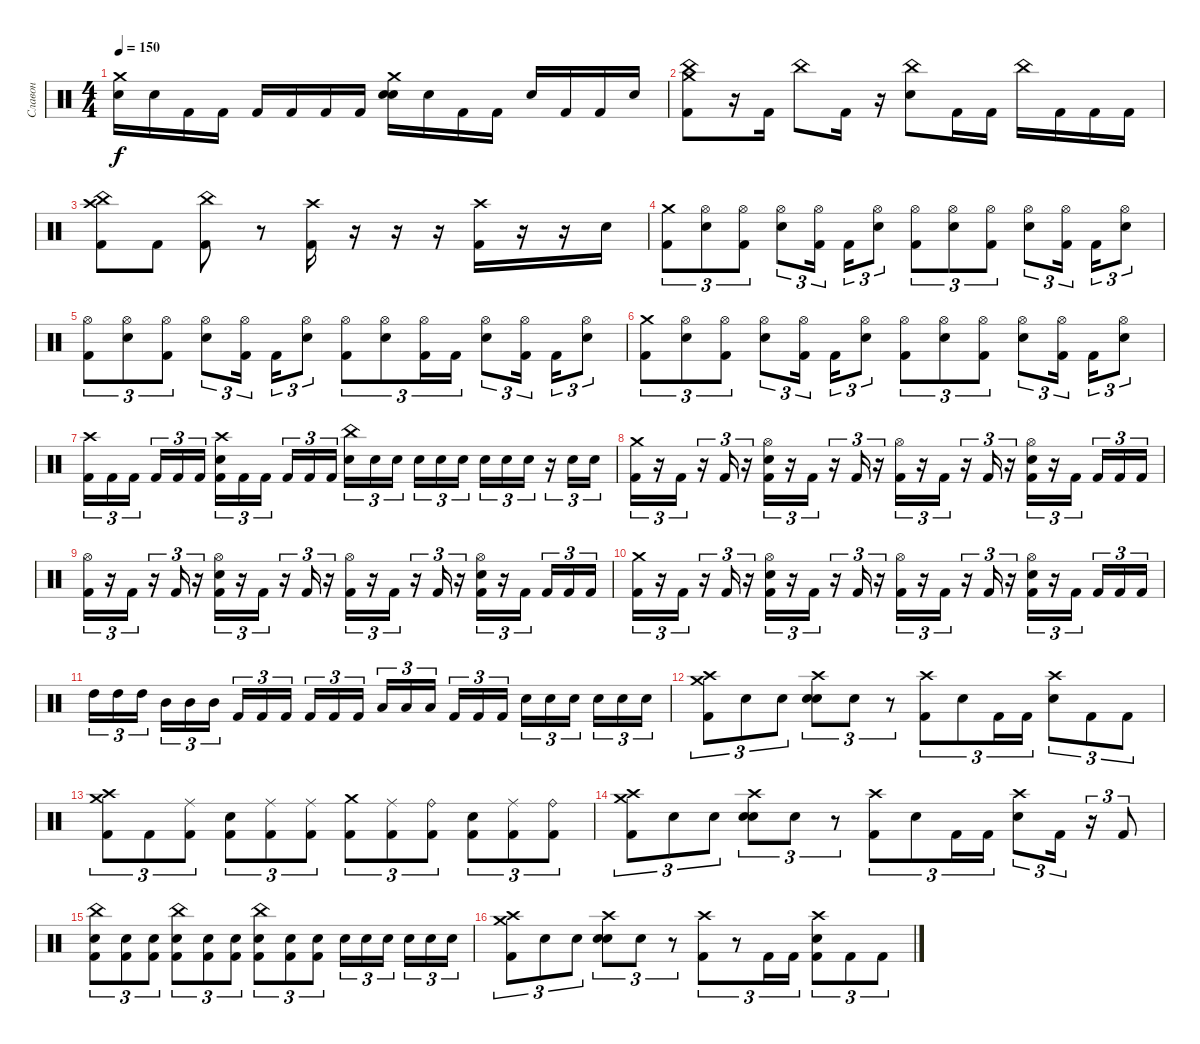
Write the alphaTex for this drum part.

\track ("Славон" "Славон") {instrument percussion}
\staff {score}
\articulation defaults
\ts (4 4)
\tempo 150
\clef neutral
\ks c
("Crash medium (hit)" "Snare (hit)").16{dy f} "Snare (hit)".16 "Kick (hit) 2".16 "Kick (hit) 2".16 "Kick (hit) 2".16 "Kick (hit) 2".16 "Kick (hit) 2".16 "Kick (hit) 2".16 ("Crash medium (hit)" "Electric Snare (hit)" "Snare (hit)").16 "Snare (hit)".16 "Kick (hit) 2".16 "Kick (hit) 2".16 "Snare (hit)".16 "Kick (hit) 2".16 "Kick (hit) 2".16 "Snare (hit)".16 |
("Crash medium (hit)" "China (hit)" "Kick (hit) 2").8 r.16 "Kick (hit) 2".16 "China (hit)".8 "Kick (hit) 2".16 r.16 ("China (hit)" "Electric Snare (hit)").8 "Kick (hit) 2".16 "Kick (hit) 2".16 "China (hit)".16 "Kick (hit) 2".16 "Kick (hit) 2".16 "Kick (hit) 2".16 |
("China (hit)" "Crash high (hit)" "Kick (hit) 2").8 "Kick (hit) 2".8 ("China (hit)" "Kick (hit) 2").8 r.8 ("Crash high (hit)" "Kick (hit) 2").16 r.16{volume 0} r.16 r.16 ("Crash high (hit)" "Kick (hit) 2").16{volume 16} r.16{volume 0} r.16 "Snare (hit)".16 |
("Crash medium (hit)" "Kick (hit) 2").8{tu (3 2) volume 16} ("Hi-Hat (open)" "Electric Snare (hit)").8{tu (3 2)} ("Hi-Hat (open)" "Kick (hit) 2").8{tu (3 2)} ("Hi-Hat (open)" "Electric Snare (hit)").8{tu (3 2)} ("Hi-Hat (open)" "Kick (hit) 2").16{tu (3 2)} "Kick (hit) 2".16{tu (3 2)} ("Hi-Hat (open)" "Electric Snare (hit)").8{tu (3 2)} ("Hi-Hat (open)" "Kick (hit) 2").8{tu (3 2)} ("Hi-Hat (open)" "Electric Snare (hit)").8{tu (3 2)} ("Hi-Hat (open)" "Kick (hit) 2").8{tu (3 2)} ("Hi-Hat (open)" "Electric Snare (hit)").8{tu (3 2)} ("Hi-Hat (open)" "Kick (hit) 2").16{tu (3 2)} "Kick (hit) 2".16{tu (3 2)} ("Hi-Hat (open)" "Electric Snare (hit)").8{tu (3 2)} |
("Hi-Hat (open)" "Kick (hit) 2").8{tu (3 2)} ("Hi-Hat (open)" "Electric Snare (hit)").8{tu (3 2)} ("Hi-Hat (open)" "Kick (hit) 2").8{tu (3 2)} ("Hi-Hat (open)" "Electric Snare (hit)").8{tu (3 2)} ("Hi-Hat (open)" "Kick (hit) 2").16{tu (3 2)} "Kick (hit) 2".16{tu (3 2)} ("Hi-Hat (open)" "Electric Snare (hit)").8{tu (3 2)} ("Hi-Hat (open)" "Kick (hit) 2").8{tu (3 2)} ("Hi-Hat (open)" "Electric Snare (hit)").8{tu (3 2)} ("Hi-Hat (open)" "Kick (hit) 2").16{tu (3 2)} "Kick (hit) 2".16{tu (3 2)} ("Hi-Hat (open)" "Electric Snare (hit)").8{tu (3 2)} ("Hi-Hat (open)" "Kick (hit) 2").16{tu (3 2)} "Kick (hit) 2".16{tu (3 2)} ("Hi-Hat (open)" "Electric Snare (hit)").8{tu (3 2)} |
("Crash medium (hit)" "Kick (hit) 2").8{tu (3 2)} ("Hi-Hat (open)" "Electric Snare (hit)").8{tu (3 2)} ("Hi-Hat (open)" "Kick (hit) 2").8{tu (3 2)} ("Hi-Hat (open)" "Electric Snare (hit)").8{tu (3 2)} ("Hi-Hat (open)" "Kick (hit) 2").16{tu (3 2)} "Kick (hit) 2".16{tu (3 2)} ("Hi-Hat (open)" "Electric Snare (hit)").8{tu (3 2)} ("Hi-Hat (open)" "Kick (hit) 2").8{tu (3 2)} ("Hi-Hat (open)" "Electric Snare (hit)").8{tu (3 2)} ("Hi-Hat (open)" "Kick (hit) 2").8{tu (3 2)} ("Hi-Hat (open)" "Electric Snare (hit)").8{tu (3 2)} ("Hi-Hat (open)" "Kick (hit) 2").16{tu (3 2)} "Kick (hit) 2".16{tu (3 2)} ("Hi-Hat (open)" "Electric Snare (hit)").8{tu (3 2)} |
("Crash high (hit)" "Kick (hit) 2").16{tu (3 2)} "Kick (hit) 2".16{tu (3 2)} "Kick (hit) 2".16{tu (3 2)} "Kick (hit) 2".16{tu (3 2)} "Kick (hit) 2".16{tu (3 2)} "Kick (hit) 2".16{tu (3 2)} ("Crash high (hit)" "Electric Snare (hit)" "Kick (hit) 2").16{tu (3 2)} "Kick (hit) 2".16{tu (3 2)} "Kick (hit) 2".16{tu (3 2)} "Kick (hit) 2".16{tu (3 2)} "Kick (hit) 2".16{tu (3 2)} "Kick (hit) 2".16{tu (3 2)} ("China (hit)" "Electric Snare (hit)").16{tu (3 2)} "Snare (hit)".16{tu (3 2)} "Electric Snare (hit)".16{tu (3 2)} "Electric Snare (hit)".16{tu (3 2)} "Electric Snare (hit)".16{tu (3 2)} "Snare (hit)".16{tu (3 2)} "Electric Snare (hit)".16{tu (3 2)} "Snare (hit)".16{tu (3 2)} "Electric Snare (hit)".16{tu (3 2)} r.16{tu (3 2)} "Electric Snare (hit)".16{tu (3 2)} "Snare (hit)".16{tu (3 2)} |
("Crash medium (hit)" "Kick (hit) 2").16{tu (3 2)} r.16{tu (3 2)} "Kick (hit) 2".16{tu (3 2)} r.16{tu (3 2)} "Kick (hit) 2".16{tu (3 2)} r.16{tu (3 2)} ("Hi-Hat (open)" "Electric Snare (hit)" "Kick (hit) 2").16{tu (3 2)} r.16{tu (3 2)} "Kick (hit) 2".16{tu (3 2)} r.16{tu (3 2)} "Kick (hit) 2".16{tu (3 2)} r.16{tu (3 2)} ("Hi-Hat (open)" "Kick (hit) 2").16{tu (3 2)} r.16{tu (3 2)} "Kick (hit) 2".16{tu (3 2)} r.16{tu (3 2)} "Kick (hit) 2".16{tu (3 2)} r.16{tu (3 2)} ("Hi-Hat (open)" "Electric Snare (hit)" "Kick (hit) 2").16{tu (3 2)} r.16{tu (3 2)} "Kick (hit) 2".16{tu (3 2)} "Kick (hit) 2".16{tu (3 2)} "Kick (hit) 2".16{tu (3 2)} "Kick (hit) 2".16{tu (3 2)} |
("Hi-Hat (open)" "Kick (hit) 2").16{tu (3 2)} r.16{tu (3 2)} "Kick (hit) 2".16{tu (3 2)} r.16{tu (3 2)} "Kick (hit) 2".16{tu (3 2)} r.16{tu (3 2)} ("Hi-Hat (open)" "Electric Snare (hit)" "Kick (hit) 2").16{tu (3 2)} r.16{tu (3 2)} "Kick (hit) 2".16{tu (3 2)} r.16{tu (3 2)} "Kick (hit) 2".16{tu (3 2)} r.16{tu (3 2)} ("Hi-Hat (open)" "Kick (hit) 2").16{tu (3 2)} r.16{tu (3 2)} "Kick (hit) 2".16{tu (3 2)} r.16{tu (3 2)} "Kick (hit) 2".16{tu (3 2)} r.16{tu (3 2)} ("Hi-Hat (open)" "Electric Snare (hit)" "Kick (hit) 2").16{tu (3 2)} r.16{tu (3 2)} "Kick (hit) 2".16{tu (3 2)} "Kick (hit) 2".16{tu (3 2)} "Kick (hit) 2".16{tu (3 2)} "Kick (hit) 2".16{tu (3 2)} |
("Crash medium (hit)" "Kick (hit) 2").16{tu (3 2)} r.16{tu (3 2)} "Kick (hit) 2".16{tu (3 2)} r.16{tu (3 2)} "Kick (hit) 2".16{tu (3 2)} r.16{tu (3 2)} ("Hi-Hat (open)" "Electric Snare (hit)" "Kick (hit) 2").16{tu (3 2)} r.16{tu (3 2)} "Kick (hit) 2".16{tu (3 2)} r.16{tu (3 2)} "Kick (hit) 2".16{tu (3 2)} r.16{tu (3 2)} ("Hi-Hat (open)" "Kick (hit) 2").16{tu (3 2)} r.16{tu (3 2)} "Kick (hit) 2".16{tu (3 2)} r.16{tu (3 2)} "Kick (hit) 2".16{tu (3 2)} r.16{tu (3 2)} ("Hi-Hat (open)" "Electric Snare (hit)" "Kick (hit) 2").16{tu (3 2)} r.16{tu (3 2)} "Kick (hit) 2".16{tu (3 2)} "Kick (hit) 2".16{tu (3 2)} "Kick (hit) 2".16{tu (3 2)} "Kick (hit) 2".16{tu (3 2)} |
"High Tom (hit)".16{tu (3 2)} "High Tom (hit)".16{tu (3 2)} "High Tom (hit)".16{tu (3 2)} "Mid Tom (hit)".16{tu (3 2)} "Mid Tom (hit)".16{tu (3 2)} "Mid Tom (hit)".16{tu (3 2)} "Kick (hit) 2".16{tu (3 2)} "Kick (hit) 2".16{tu (3 2)} "Kick (hit) 2".16{tu (3 2)} "Kick (hit) 2".16{tu (3 2)} "Kick (hit) 2".16{tu (3 2)} "Kick (hit) 2".16{tu (3 2)} "Low Tom (hit)".16{tu (3 2)} "Low Tom (hit)".16{tu (3 2)} "Low Tom (hit)".16{tu (3 2)} "Kick (hit) 2".16{tu (3 2)} "Kick (hit) 2".16{tu (3 2)} "Kick (hit) 2".16{tu (3 2)} "Electric Snare (hit)".16{tu (3 2)} "Electric Snare (hit)".16{tu (3 2)} "Electric Snare (hit)".16{tu (3 2)} "Electric Snare (hit)".16{tu (3 2)} "Electric Snare (hit)".16{tu (3 2)} "Electric Snare (hit)".16{tu (3 2)} |
("Crash medium (hit)" "Crash high (hit)" "Kick (hit) 2").8{tu (3 2)} "Snare (hit)".8{tu (3 2)} "Snare (hit)".8{tu (3 2)} ("Crash high (hit)" "Electric Snare (hit)" "Snare (hit)").8{tu (3 2)} "Snare (hit)".8{tu (3 2)} r.8{tu (3 2)} ("Crash high (hit)" "Kick (hit) 2").8{tu (3 2)} "Snare (hit)".8{tu (3 2)} "Kick (hit) 2".16{tu (3 2)} "Kick (hit) 2".16{tu (3 2)} ("Crash high (hit)" "Electric Snare (hit)").8{tu (3 2)} "Kick (hit) 2".8{tu (3 2)} "Kick (hit) 2".8{tu (3 2)} |
("Crash medium (hit)" "Crash high (hit)" "Kick (hit) 2").8{tu (3 2)} "Kick (hit) 2".8{tu (3 2)} ("Ride (middle)" "Kick (hit) 2").8{tu (3 2)} ("Electric Snare (hit)" "Kick (hit) 2").8{tu (3 2)} ("Ride (middle)" "Kick (hit) 2").8{tu (3 2)} ("Ride (middle)" "Kick (hit) 2").8{tu (3 2)} ("Crash medium (hit)" "Kick (hit) 2").8{tu (3 2)} ("Ride (middle)" "Kick (hit) 2").8{tu (3 2)} ("Ride (bell)" "Kick (hit) 2").8{tu (3 2)} ("Electric Snare (hit)" "Kick (hit) 2").8{tu (3 2)} ("Ride (middle)" "Kick (hit) 2").8{tu (3 2)} ("Ride (bell)" "Kick (hit) 2").8{tu (3 2)} |
("Crash medium (hit)" "Crash high (hit)" "Kick (hit) 2").8{tu (3 2)} "Snare (hit)".8{tu (3 2)} "Snare (hit)".8{tu (3 2)} ("Crash high (hit)" "Electric Snare (hit)" "Snare (hit)").8{tu (3 2)} "Snare (hit)".8{tu (3 2)} r.8{tu (3 2)} ("Crash high (hit)" "Kick (hit) 2").8{tu (3 2)} "Snare (hit)".8{tu (3 2)} "Kick (hit) 2".16{tu (3 2)} "Kick (hit) 2".16{tu (3 2)} ("Crash high (hit)" "Electric Snare (hit)").8{tu (3 2)} "Kick (hit) 2".16{tu (3 2)} r.16{tu (3 2)} "Kick (hit) 2".8{tu (3 2)} |
("China (hit)" "Electric Snare (hit)" "Kick (hit) 2").8{tu (3 2)} ("Electric Snare (hit)" "Kick (hit) 2").8{tu (3 2)} ("Electric Snare (hit)" "Kick (hit) 2").8{tu (3 2)} ("China (hit)" "Electric Snare (hit)" "Kick (hit) 2").8{tu (3 2)} ("Electric Snare (hit)" "Kick (hit) 2").8{tu (3 2)} ("Electric Snare (hit)" "Kick (hit) 2").8{tu (3 2)} ("China (hit)" "Electric Snare (hit)" "Kick (hit) 2").8{tu (3 2)} ("Electric Snare (hit)" "Kick (hit) 2").8{tu (3 2)} ("Electric Snare (hit)" "Kick (hit) 2").8{tu (3 2)} "Electric Snare (hit)".16{tu (3 2)} "Electric Snare (hit)".16{tu (3 2)} "Electric Snare (hit)".16{tu (3 2)} "Electric Snare (hit)".16{tu (3 2)} "Electric Snare (hit)".16{tu (3 2)} "Electric Snare (hit)".16{tu (3 2)} |
("Crash medium (hit)" "Crash high (hit)" "Kick (hit) 2").8{tu (3 2)} "Snare (hit)".8{tu (3 2)} "Snare (hit)".8{tu (3 2)} ("Crash high (hit)" "Electric Snare (hit)" "Snare (hit)").8{tu (3 2)} "Snare (hit)".8{tu (3 2)} r.8{tu (3 2)} ("Crash high (hit)" "Kick (hit) 2").8{tu (3 2)} r.8{tu (3 2)} "Kick (hit) 2".16{tu (3 2)} "Kick (hit) 2".16{tu (3 2)} ("Crash high (hit)" "Electric Snare (hit)" "Kick (hit) 2").8{tu (3 2)} "Kick (hit) 2".8{tu (3 2)} "Kick (hit) 2".8{tu (3 2)}
